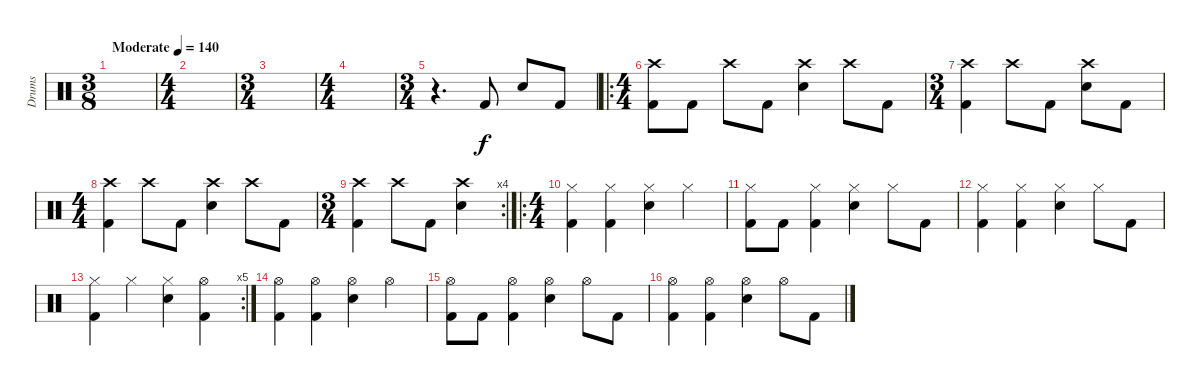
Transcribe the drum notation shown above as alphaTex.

\track ("Drums" "Drums") {instrument percussion}
\staff {score}
\articulation defaults
\ts (3 8)
\tempo (140 "Moderate")
\clef neutral
\ks c
|
\ts (4 4)
|
\ts (3 4)
|
\ts (4 4)
|
\ts (3 4)
r.4{d} "Kick (hit) 2".8 "Snare (hit) 2".8 "Kick (hit) 2".8 |
\ro
\ts (4 4)
("Crash high (hit)" "Kick (hit) 2").8 "Kick (hit) 2".8 "Crash high (hit)".8 "Kick (hit) 2".8 ("Crash high (hit)" "Snare (hit) 2").4 "Crash high (hit)".8 "Kick (hit) 2".8 |
\ts (3 4)
("Crash high (hit)" "Kick (hit) 2").4 "Crash high (hit)".8 "Kick (hit) 2".8 ("Crash high (hit)" "Snare (hit) 2").8 "Kick (hit) 2".8 |
\ts (4 4)
("Crash high (hit)" "Kick (hit) 2").4 "Crash high (hit)".8 "Kick (hit) 2".8 ("Crash high (hit)" "Snare (hit) 2").4 "Crash high (hit)".8 "Kick (hit) 2".8 |
\rc 4
\ts (3 4)
("Crash high (hit)" "Kick (hit) 2").4 "Crash high (hit)".8 "Kick (hit) 2".8 ("Crash high (hit)" "Snare (hit) 2").4 |
\ro
\ts (4 4)
("Kick (hit) 2" "Hi-Hat (closed)").4 ("Kick (hit) 2" "Hi-Hat (closed)").4 ("Snare (hit) 2" "Hi-Hat (closed)").4 "Hi-Hat (closed)".4 |
("Kick (hit) 2" "Hi-Hat (closed)").8 "Kick (hit) 2".8 ("Kick (hit) 2" "Hi-Hat (closed)").4 ("Snare (hit) 2" "Hi-Hat (closed)").4 "Hi-Hat (closed)".8 "Kick (hit) 2".8 |
("Kick (hit) 2" "Hi-Hat (closed)").4 ("Kick (hit) 2" "Hi-Hat (closed)").4 ("Snare (hit) 2" "Hi-Hat (closed)").4 "Hi-Hat (closed)".8 "Kick (hit) 2".8 |
\rc 5
("Kick (hit) 2" "Hi-Hat (closed)").4 "Hi-Hat (closed)".4 ("Snare (hit) 2" "Hi-Hat (closed)").4 ("Kick (hit) 2" "Hi-Hat (open)").4 |
("Kick (hit) 2" "Hi-Hat (open)").4 ("Kick (hit) 2" "Hi-Hat (open)").4 ("Snare (hit) 2" "Hi-Hat (open)").4 "Hi-Hat (open)".4 |
("Kick (hit) 2" "Hi-Hat (open)").8 "Kick (hit) 2".8 ("Kick (hit) 2" "Hi-Hat (open)").4 ("Snare (hit) 2" "Hi-Hat (open)").4 "Hi-Hat (open)".8 "Kick (hit) 2".8 |
("Kick (hit) 2" "Hi-Hat (open)").4 ("Kick (hit) 2" "Hi-Hat (open)").4 ("Snare (hit) 2" "Hi-Hat (open)").4 "Hi-Hat (open)".8 "Kick (hit) 2".8
